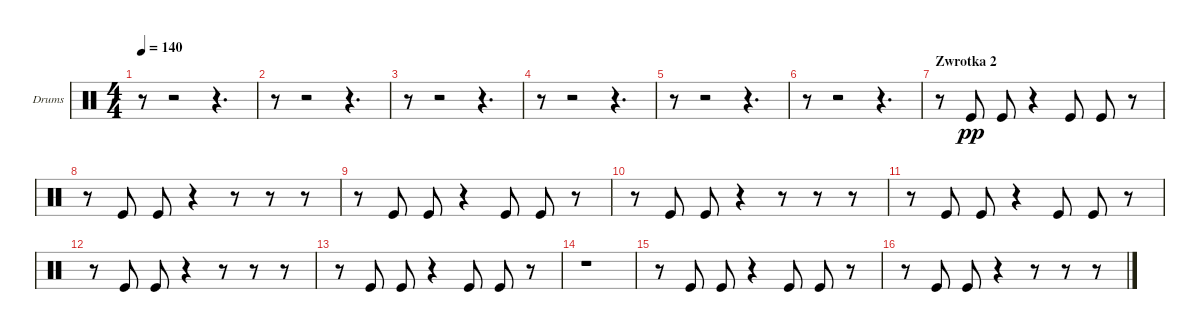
\bracketExtendMode groupsimilarinstruments
\firstSystemTrackNameOrientation horizontal
\otherSystemsTrackNameOrientation horizontal
\track ("Drumkit" "Drums") {instrument percussion}
\staff {score}
\articulation defaults
\ts (4 4)
\tempo 140
\clef neutral
\ks c
r.8{dy pp} r.2 r.4{d} |
r.8 r.2 r.4{d} |
r.8 r.2 r.4{d} |
r.8 r.2 r.4{d} |
r.8 r.2 r.4{d} |
r.8 r.2 r.4{d} |
\section ("" "Zwrotka 2")
r.8 "Kick (hit)".8 "Kick (hit)".8 r.4 "Kick (hit)".8 "Kick (hit)".8 r.8 |
r.8 "Kick (hit)".8 "Kick (hit)".8 r.4 r.8 r.8 r.8 |
r.8 "Kick (hit)".8 "Kick (hit)".8 r.4 "Kick (hit)".8 "Kick (hit)".8 r.8 |
r.8 "Kick (hit)".8 "Kick (hit)".8 r.4 r.8 r.8 r.8 |
r.8 "Kick (hit)".8 "Kick (hit)".8 r.4 "Kick (hit)".8 "Kick (hit)".8 r.8 |
r.8 "Kick (hit)".8 "Kick (hit)".8 r.4 r.8 r.8 r.8 |
r.8 "Kick (hit)".8 "Kick (hit)".8 r.4 "Kick (hit)".8 "Kick (hit)".8 r.8 |
r.1 |
r.8 "Kick (hit)".8 "Kick (hit)".8 r.4 "Kick (hit)".8 "Kick (hit)".8 r.8 |
r.8 "Kick (hit)".8 "Kick (hit)".8 r.4 r.8 r.8 r.8
